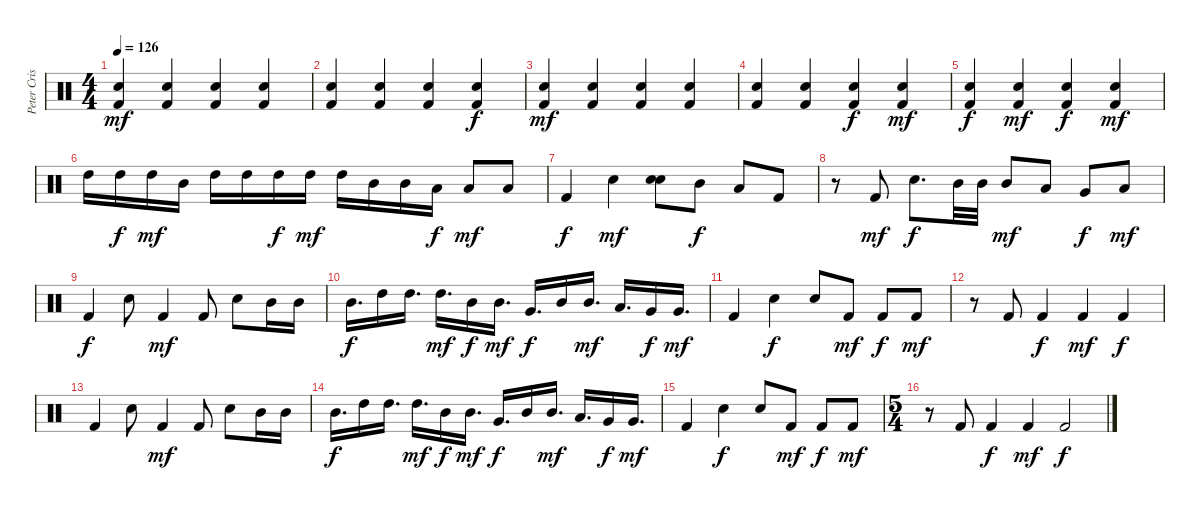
\track ("Peter Criss" "Peter Cris") {instrument percussion}
\staff {score}
\articulation defaults
\ts (4 4)
\tempo 126
\clef neutral
\ks c
("Kick (hit) 2" "Electric Snare (hit)").4{dy mf} ("Kick (hit) 2" "Electric Snare (hit)").4 ("Kick (hit) 2" "Electric Snare (hit)").4 ("Kick (hit) 2" "Electric Snare (hit)").4 |
("Kick (hit) 2" "Electric Snare (hit)").4 ("Kick (hit) 2" "Electric Snare (hit)").4 ("Kick (hit) 2" "Electric Snare (hit)").4 ("Kick (hit) 2" "Electric Snare (hit)").4{dy f} |
("Kick (hit) 2" "Electric Snare (hit)").4{dy mf} ("Kick (hit) 2" "Electric Snare (hit)").4 ("Kick (hit) 2" "Electric Snare (hit)").4 ("Kick (hit) 2" "Electric Snare (hit)").4 |
("Kick (hit) 2" "Electric Snare (hit)").4 ("Kick (hit) 2" "Electric Snare (hit)").4 ("Kick (hit) 2" "Electric Snare (hit)").4{dy f} ("Kick (hit) 2" "Electric Snare (hit)").4{dy mf} |
("Kick (hit) 2" "Electric Snare (hit)").4{dy f} ("Kick (hit) 2" "Electric Snare (hit)").4{dy mf} ("Kick (hit) 2" "Electric Snare (hit)").4{dy f} ("Kick (hit) 2" "Electric Snare (hit)").4{dy mf} |
"High Tom (hit)".16 "High Tom (hit)".16{dy f} "High Tom (hit)".16{dy mf} "Mid Tom (hit)".16 "High Tom (hit)".16 "High Tom (hit)".16 "High Tom (hit)".16{dy f} "High Tom (hit)".16{dy mf} "High Tom (hit)".16 "Mid Tom (hit)".16 "Mid Tom (hit)".16 "Low Tom (hit)".16{dy f} "Low Tom (hit)".8{dy mf} "Low Tom (hit)".8 |
"Kick (hit) 2".4{dy f} "Electric Snare (hit)".4{dy mf} ("Electric Snare (hit)" "Electric Snare (hit)").8 "Mid Tom (hit)".8{dy f} "Low Tom (hit)".8 "Kick (hit) 2".8 |
r.8 "Kick (hit) 2".8{dy mf} "Electric Snare (hit)".8{d dy f} "Mid Tom (hit)".32 "Mid Tom (hit)".32 "Mid Tom (hit)".8{dy mf} "Low Tom (hit)".8 "Very Low Tom (hit)".8{dy f} "Low Floor Tom (hit)".8{dy mf} |
"Kick (hit) 2".4{dy f} "Electric Snare (hit)".8 "Kick (hit) 2".4{dy mf} "Kick (hit) 2".8 "Electric Snare (hit)".8 "Mid Tom (hit)".16 "Mid Tom (hit)".16 |
"Mid Tom (hit)".16{d dy f} "High Tom (hit)".16 "High Tom (hit)".16{d} "High Tom (hit)".16{d dy mf} "Mid Tom (hit)".16{dy f} "Mid Tom (hit)".16{d dy mf} "Very Low Tom (hit)".16{d dy f} "Mid Tom (hit)".16 "Mid Tom (hit)".16{d dy mf} "Low Tom (hit)".16{d} "Very Low Tom (hit)".16{dy f} "Very Low Tom (hit)".16{d dy mf} |
"Kick (hit) 2".4 "Electric Snare (hit)".4{dy f} "Electric Snare (hit)".8 "Kick (hit) 2".8{dy mf} "Kick (hit) 2".8{dy f} "Kick (hit) 2".8{dy mf} |
r.8 "Kick (hit) 2".8 "Kick (hit) 2".4{dy f} "Kick (hit) 2".4{dy mf} "Kick (hit) 2".4{dy f} |
"Kick (hit) 2".4 "Electric Snare (hit)".8 "Kick (hit) 2".4{dy mf} "Kick (hit) 2".8 "Electric Snare (hit)".8 "Mid Tom (hit)".16 "Mid Tom (hit)".16 |
"Mid Tom (hit)".16{d dy f} "High Tom (hit)".16 "High Tom (hit)".16{d} "High Tom (hit)".16{d dy mf} "Mid Tom (hit)".16{dy f} "Mid Tom (hit)".16{d dy mf} "Very Low Tom (hit)".16{d dy f} "Mid Tom (hit)".16 "Mid Tom (hit)".16{d dy mf} "Low Tom (hit)".16{d} "Very Low Tom (hit)".16{dy f} "Very Low Tom (hit)".16{d dy mf} |
"Kick (hit) 2".4 "Electric Snare (hit)".4{dy f} "Electric Snare (hit)".8 "Kick (hit) 2".8{dy mf} "Kick (hit) 2".8{dy f} "Kick (hit) 2".8{dy mf} |
\ts (5 4)
r.8 "Kick (hit) 2".8 "Kick (hit) 2".4{dy f} "Kick (hit) 2".4{dy mf} "Kick (hit) 2".2{dy f}
